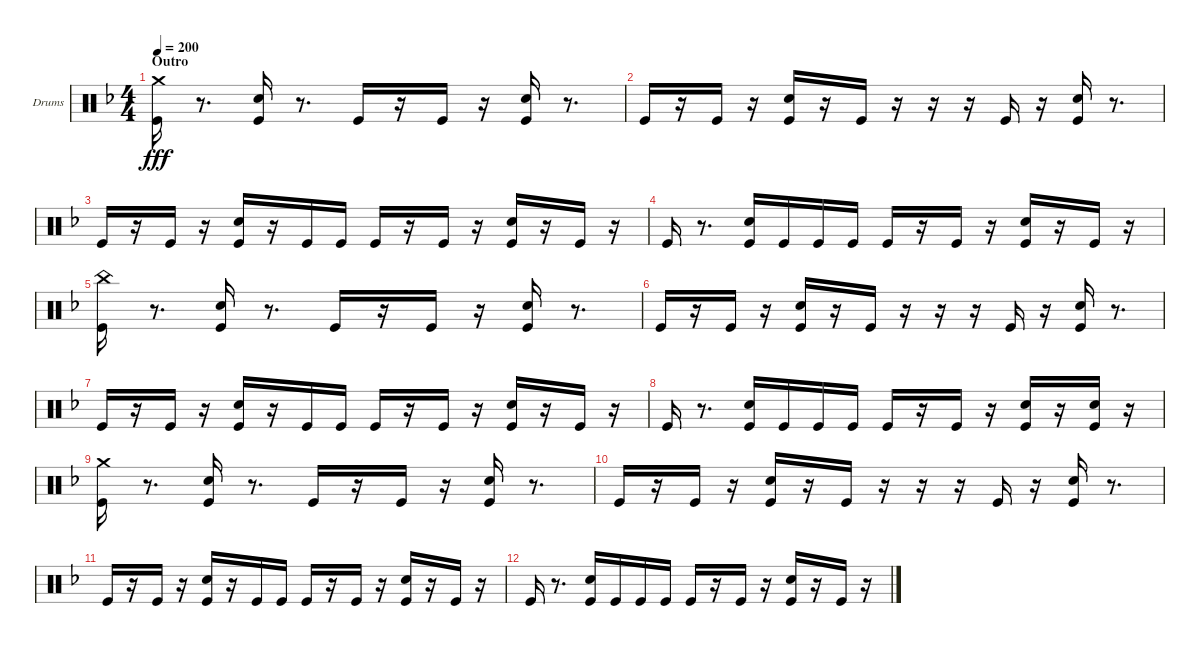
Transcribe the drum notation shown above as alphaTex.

\bracketExtendMode groupsimilarinstruments
\firstSystemTrackNameOrientation horizontal
\otherSystemsTrackNameOrientation horizontal
\track ("Drumkit" "Drums") {instrument percussion}
\staff {score}
\articulation defaults
\ts (4 4)
\section ("" "Outro")
\tempo 200
\clef neutral
\scale
0.333333
\ks dminor
("Kick (hit)" "Crash medium (hit)").16{dy fff} r.8{d} ("Kick (hit)" "Snare (hit) 2").16 r.8{d} "Kick (hit)".16 r.16 "Kick (hit)".16 r.16 ("Kick (hit)" "Snare (hit) 2").16 r.8{d} |
\scale
0.333333 "Kick (hit)".16 r.16 "Kick (hit)".16 r.16 ("Kick (hit)" "Snare (hit) 2").16 r.16 "Kick (hit)".16 r.16 r.16 r.16 "Kick (hit)".16 r.16 ("Kick (hit)" "Snare (hit) 2").16 r.8{d} |
\scale
0.333333 "Kick (hit)".16 r.16 "Kick (hit)".16 r.16 ("Kick (hit)" "Snare (hit) 2").16 r.16 "Kick (hit)".16 "Kick (hit)".16 "Kick (hit)".16 r.16 "Kick (hit)".16 r.16 ("Kick (hit)" "Snare (hit) 2").16 r.16 "Kick (hit)".16 r.16 |
\scale
0.333333 "Kick (hit)".16 r.8{d} ("Kick (hit)" "Snare (hit) 2").16 "Kick (hit)".16 "Kick (hit)".16 "Kick (hit)".16 "Kick (hit)".16 r.16 "Kick (hit)".16 r.16 ("Kick (hit)" "Snare (hit) 2").16 r.16 "Kick (hit)".16 r.16 |
\scale
0.333333 ("Kick (hit)" "China (hit)").16 r.8{d} ("Snare (hit) 2" "Kick (hit)").16 r.8{d} "Kick (hit)".16 r.16 "Kick (hit)".16 r.16 ("Snare (hit) 2" "Kick (hit)").16 r.8{d} |
\scale
0.333333 "Kick (hit)".16 r.16 "Kick (hit)".16 r.16 ("Snare (hit) 2" "Kick (hit)").16 r.16 "Kick (hit)".16 r.16 r.16 r.16 "Kick (hit)".16 r.16 ("Snare (hit) 2" "Kick (hit)").16 r.8{d} |
\scale
0.333333 "Kick (hit)".16 r.16 "Kick (hit)".16 r.16 ("Snare (hit) 2" "Kick (hit)").16 r.16 "Kick (hit)".16 "Kick (hit)".16 "Kick (hit)".16 r.16 "Kick (hit)".16 r.16 ("Snare (hit) 2" "Kick (hit)").16 r.16 "Kick (hit)".16 r.16 |
\scale
0.333333 "Kick (hit)".16 r.8{d} ("Snare (hit) 2" "Kick (hit)").16 "Kick (hit)".16 "Kick (hit)".16 "Kick (hit)".16 "Kick (hit)".16 r.16 "Kick (hit)".16 r.16 ("Snare (hit) 2" "Kick (hit)").16 r.16 ("Snare (hit) 2" "Kick (hit)").16 r.16 |
\scale
0.333333 ("Kick (hit)" "Crash medium (hit)").16 r.8{d} ("Snare (hit) 2" "Kick (hit)").16 r.8{d} "Kick (hit)".16 r.16 "Kick (hit)".16 r.16 ("Snare (hit) 2" "Kick (hit)").16 r.8{d} |
\scale
0.333333 "Kick (hit)".16 r.16 "Kick (hit)".16 r.16 ("Snare (hit) 2" "Kick (hit)").16 r.16 "Kick (hit)".16 r.16 r.16 r.16 "Kick (hit)".16 r.16 ("Snare (hit) 2" "Kick (hit)").16 r.8{d} |
\scale
0.333333 "Kick (hit)".16 r.16 "Kick (hit)".16 r.16 ("Snare (hit) 2" "Kick (hit)").16 r.16 "Kick (hit)".16 "Kick (hit)".16 "Kick (hit)".16 r.16 "Kick (hit)".16 r.16 ("Snare (hit) 2" "Kick (hit)").16 r.16 "Kick (hit)".16 r.16 |
\scale
0.333333 "Kick (hit)".16 r.8{d} ("Snare (hit) 2" "Kick (hit)").16 "Kick (hit)".16 "Kick (hit)".16 "Kick (hit)".16 "Kick (hit)".16 r.16 "Kick (hit)".16 r.16 ("Snare (hit) 2" "Kick (hit)").16 r.16 "Kick (hit)".16 r.16 |
\scale
0.333333 |
\scale
0.333333 |
\scale
0.333333
